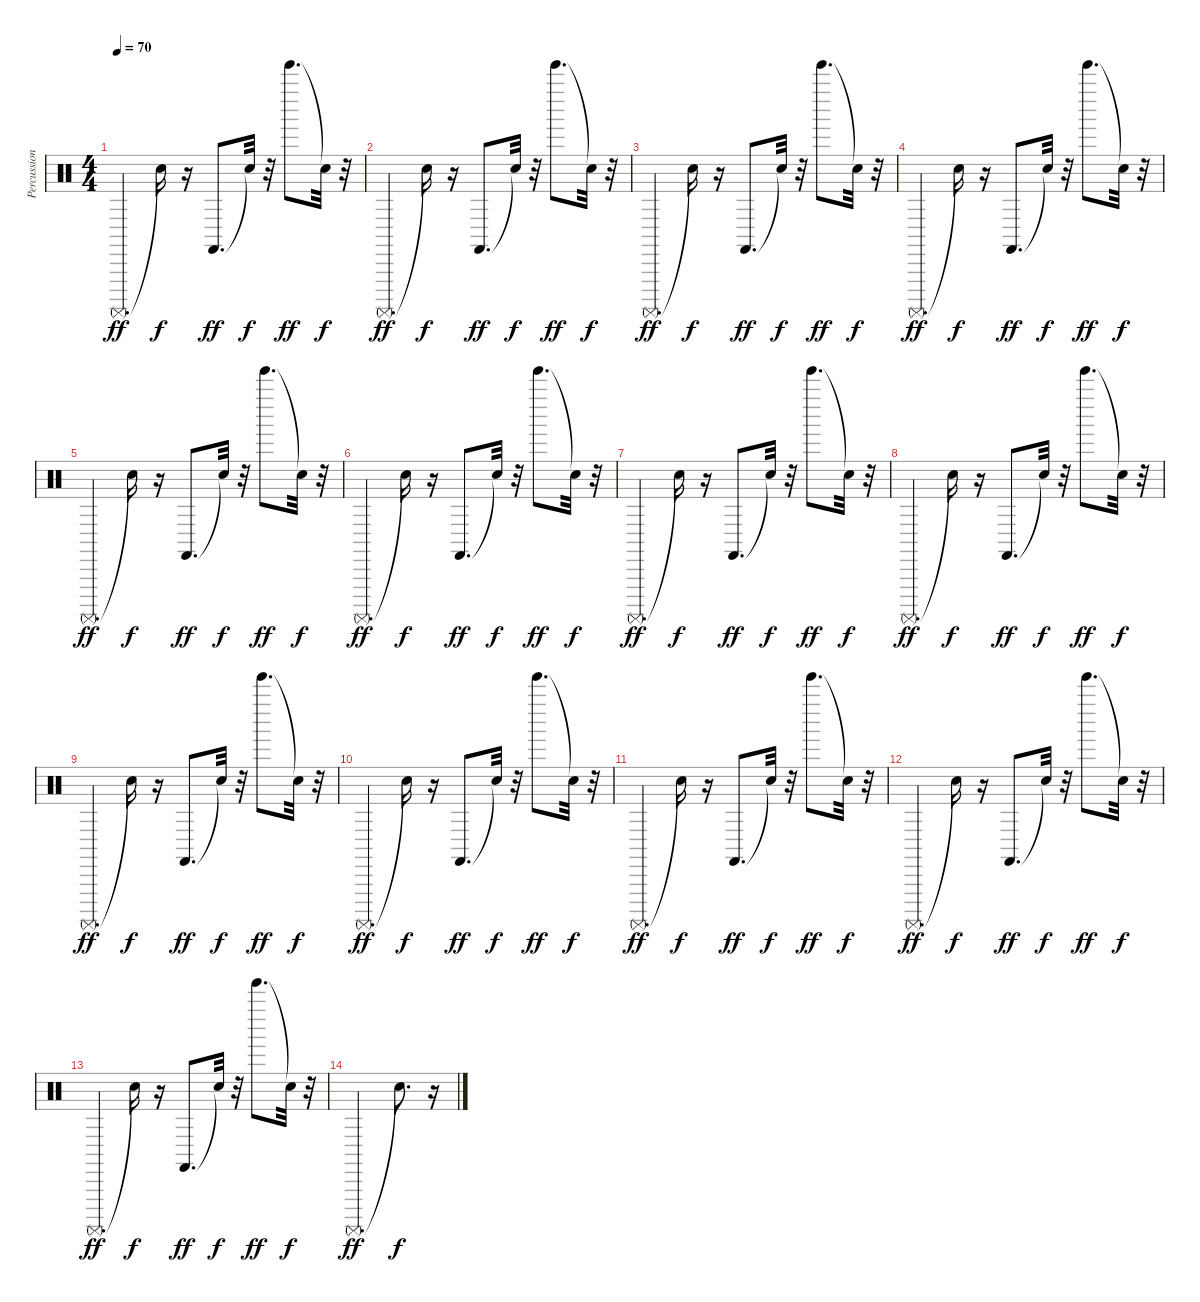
\track ("Percussions" "Percussion") {instrument percussion}
\staff {score}
\articulation defaults
\ts (4 4)
\tempo 70
\clef neutral
\ks c "Surdo (mute)".4{d dy ff} "Snare (hit)"{t}.16{dy f}
r.16 "Castanets (hit)".8{d dy ff} "Snare (hit)"{t}.32{dy f} r.32 "Tinkle Bell (hit)".8{d dy ff} "Snare (hit)"{t}.32{dy f} r.32 |
"Surdo (mute)".4{d dy ff} "Snare (hit)"{t}.16{dy f} r.16 "Castanets (hit)".8{d dy ff} "Snare (hit)"{t}.32{dy f} r.32 "Tinkle Bell (hit)".8{d dy ff} "Snare (hit)"{t}.32{dy f} r.32 |
"Surdo (mute)".4{d dy ff} "Snare (hit)"{t}.16{dy f} r.16 "Castanets (hit)".8{d dy ff} "Snare (hit)"{t}.32{dy f} r.32 "Tinkle Bell (hit)".8{d dy ff} "Snare (hit)"{t}.32{dy f} r.32 |
"Surdo (mute)".4{d dy ff} "Snare (hit)"{t}.16{dy f} r.16 "Castanets (hit)".8{d dy ff} "Snare (hit)"{t}.32{dy f} r.32 "Tinkle Bell (hit)".8{d dy ff} "Snare (hit)"{t}.32{dy f} r.32 |
"Surdo (mute)".4{d dy ff} "Snare (hit)"{t}.16{dy f} r.16 "Castanets (hit)".8{d dy ff} "Snare (hit)"{t}.32{dy f} r.32 "Tinkle Bell (hit)".8{d dy ff} "Snare (hit)"{t}.32{dy f} r.32 |
"Surdo (mute)".4{d dy ff} "Snare (hit)"{t}.16{dy f} r.16 "Castanets (hit)".8{d dy ff} "Snare (hit)"{t}.32{dy f} r.32 "Tinkle Bell (hit)".8{d dy ff} "Snare (hit)"{t}.32{dy f} r.32 |
"Surdo (mute)".4{d dy ff} "Snare (hit)"{t}.16{dy f} r.16 "Castanets (hit)".8{d dy ff} "Snare (hit)"{t}.32{dy f} r.32 "Tinkle Bell (hit)".8{d dy ff} "Snare (hit)"{t}.32{dy f} r.32 |
"Surdo (mute)".4{d dy ff} "Snare (hit)"{t}.16{dy f} r.16 "Castanets (hit)".8{d dy ff} "Snare (hit)"{t}.32{dy f} r.32 "Tinkle Bell (hit)".8{d dy ff} "Snare (hit)"{t}.32{dy f} r.32 |
"Surdo (mute)".4{d dy ff} "Snare (hit)"{t}.16{dy f} r.16 "Castanets (hit)".8{d dy ff} "Snare (hit)"{t}.32{dy f} r.32 "Tinkle Bell (hit)".8{d dy ff} "Snare (hit)"{t}.32{dy f} r.32 |
"Surdo (mute)".4{d dy ff} "Snare (hit)"{t}.16{dy f} r.16 "Castanets (hit)".8{d dy ff} "Snare (hit)"{t}.32{dy f} r.32 "Tinkle Bell (hit)".8{d dy ff} "Snare (hit)"{t}.32{dy f} r.32 |
"Surdo (mute)".4{d dy ff} "Snare (hit)"{t}.16{dy f} r.16 "Castanets (hit)".8{d dy ff} "Snare (hit)"{t}.32{dy f} r.32 "Tinkle Bell (hit)".8{d dy ff} "Snare (hit)"{t}.32{dy f} r.32 |
"Surdo (mute)".4{d dy ff} "Snare (hit)"{t}.16{dy f} r.16 "Castanets (hit)".8{d dy ff} "Snare (hit)"{t}.32{dy f} r.32 "Tinkle Bell (hit)".8{d dy ff} "Snare (hit)"{t}.32{dy f} r.32 |
"Surdo (mute)".4{d dy ff} "Snare (hit)"{t}.16{dy f} r.16 "Castanets (hit)".8{d dy ff} "Snare (hit)"{t}.32{dy f} r.32 "Tinkle Bell (hit)".8{d dy ff} "Snare (hit)"{t}.32{dy f} r.32 |
"Surdo (mute)".2{d dy ff} "Snare (hit)"{t}.8{d dy f} r.16
